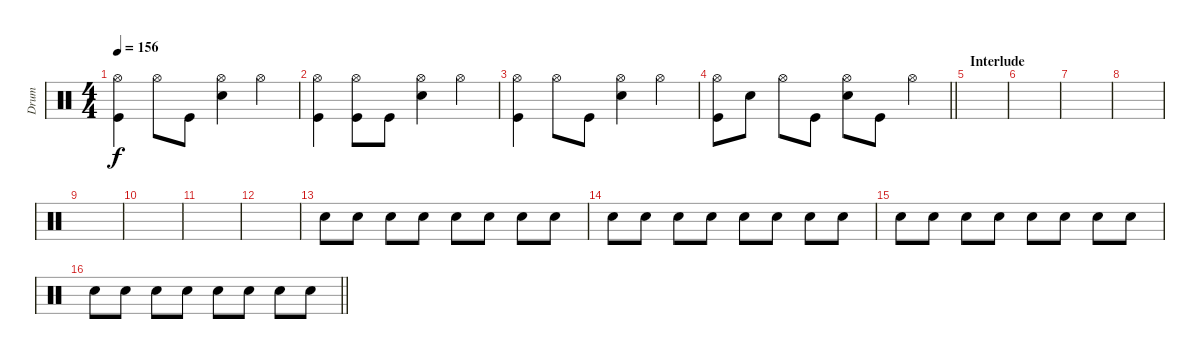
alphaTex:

\track ("Drum" "Drum") {instrument percussion}
\staff {score}
\articulation defaults
\ts (4 4)
\tempo 156
\clef neutral
\ks c
("Hi-Hat (open)" "Kick (hit)").4{dy f} "Hi-Hat (open)".8 "Kick (hit)".8 ("Hi-Hat (open)" "Snare (hit) 2").4 "Hi-Hat (open)".4 |
("Hi-Hat (open)" "Kick (hit)").4 ("Hi-Hat (open)" "Kick (hit)").8 "Kick (hit)".8 ("Hi-Hat (open)" "Snare (hit) 2").4 "Hi-Hat (open)".4 |
("Hi-Hat (open)" "Kick (hit)").4 "Hi-Hat (open)".8 "Kick (hit)".8 ("Hi-Hat (open)" "Snare (hit) 2").4 "Hi-Hat (open)".4 |
\barLineRight lightlight
("Hi-Hat (open)" "Kick (hit)").8 "Snare (hit) 2".8 "Hi-Hat (open)".8 "Kick (hit)".8 ("Hi-Hat (open)" "Snare (hit) 2").8 "Kick (hit)".8 "Hi-Hat (open)".4 |
\section ("" "Interlude")
|
|
|
|
|
|
|
|
"Snare (hit) 2".8{volume 16} "Snare (hit) 2".8 "Snare (hit) 2".8 "Snare (hit) 2".8 "Snare (hit) 2".8 "Snare (hit) 2".8 "Snare (hit) 2".8 "Snare (hit) 2".8 |
"Snare (hit) 2".8 "Snare (hit) 2".8 "Snare (hit) 2".8 "Snare (hit) 2".8 "Snare (hit) 2".8 "Snare (hit) 2".8 "Snare (hit) 2".8 "Snare (hit) 2".8 |
"Snare (hit) 2".8 "Snare (hit) 2".8 "Snare (hit) 2".8 "Snare (hit) 2".8 "Snare (hit) 2".8 "Snare (hit) 2".8 "Snare (hit) 2".8 "Snare (hit) 2".8 |
\barLineRight lightlight "Snare (hit) 2".8 "Snare (hit) 2".8 "Snare (hit) 2".8 "Snare (hit) 2".8 "Snare (hit) 2".8 "Snare (hit) 2".8 "Snare (hit) 2".8 "Snare (hit) 2".8
